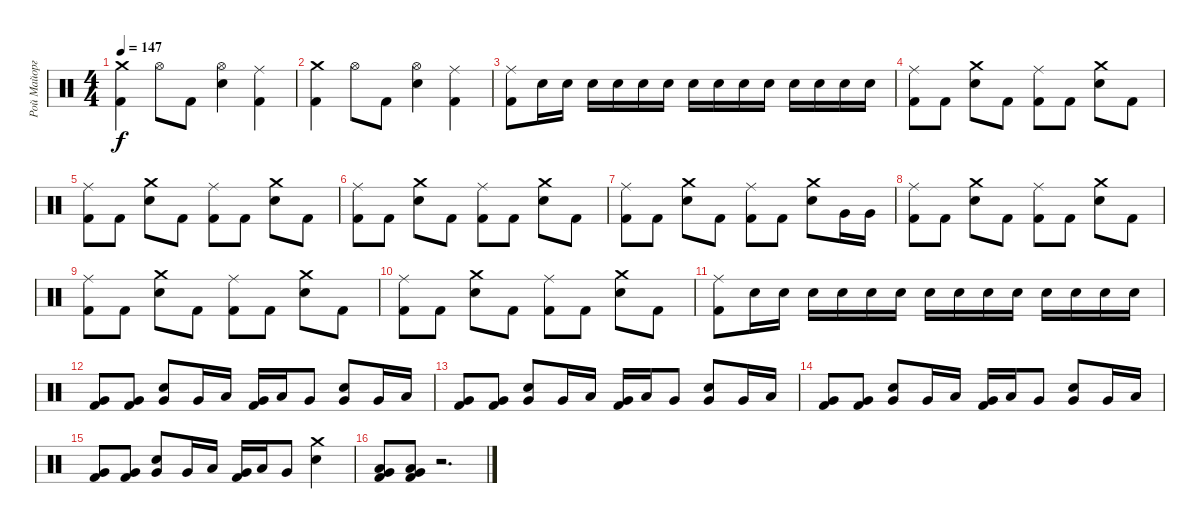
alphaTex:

\track ("Рой Майорга" "Рой Майорг") {instrument percussion}
\staff {score}
\articulation defaults
\ts (4 4)
\tempo 147
\clef neutral
\ks c
("Crash medium (hit)" "Kick (hit) 2").4{dy f} "Hi-Hat (open)".8 "Kick (hit) 2".8 ("Hi-Hat (open)" "Electric Snare (hit)").4 ("Ride (middle)" "Kick (hit) 2").4 |
("Crash medium (hit)" "Kick (hit) 2").4 "Hi-Hat (open)".8 "Kick (hit) 2".8 ("Hi-Hat (open)" "Electric Snare (hit)").4 ("Ride (middle)" "Kick (hit) 2").4 |
("Ride (middle)" "Kick (hit) 2").8 "Electric Snare (hit)".16 "Electric Snare (hit)".16 "Electric Snare (hit)".16 "Electric Snare (hit)".16 "Electric Snare (hit)".16 "Electric Snare (hit)".16 "Electric Snare (hit)".16 "Electric Snare (hit)".16 "Electric Snare (hit)".16 "Electric Snare (hit)".16 "Electric Snare (hit)".16 "Electric Snare (hit)".16 "Electric Snare (hit)".16 "Electric Snare (hit)".16 |
("Ride (middle)" "Kick (hit) 2").8 "Kick (hit) 2".8 ("Crash medium (hit)" "Electric Snare (hit)").8 "Kick (hit) 2".8 ("Ride (middle)" "Kick (hit) 2").8 "Kick (hit) 2".8 ("Crash medium (hit)" "Electric Snare (hit)").8 "Kick (hit) 2".8 |
("Ride (middle)" "Kick (hit) 2").8 "Kick (hit) 2".8 ("Crash medium (hit)" "Electric Snare (hit)").8 "Kick (hit) 2".8 ("Ride (middle)" "Kick (hit) 2").8 "Kick (hit) 2".8 ("Crash medium (hit)" "Electric Snare (hit)").8 "Kick (hit) 2".8 |
("Ride (middle)" "Kick (hit) 2").8 "Kick (hit) 2".8 ("Crash medium (hit)" "Electric Snare (hit)").8 "Kick (hit) 2".8 ("Ride (middle)" "Kick (hit) 2").8 "Kick (hit) 2".8 ("Crash medium (hit)" "Electric Snare (hit)").8 "Kick (hit) 2".8 |
("Ride (middle)" "Kick (hit) 2").8 "Kick (hit) 2".8 ("Crash medium (hit)" "Electric Snare (hit)").8 "Kick (hit) 2".8 ("Ride (middle)" "Kick (hit) 2").8 "Kick (hit) 2".8 ("Crash medium (hit)" "Electric Snare (hit)").8 "Very Low Tom (hit)".16 "Very Low Tom (hit)".16 |
("Ride (middle)" "Kick (hit) 2").8 "Kick (hit) 2".8 ("Crash medium (hit)" "Electric Snare (hit)").8 "Kick (hit) 2".8 ("Ride (middle)" "Kick (hit) 2").8 "Kick (hit) 2".8 ("Crash medium (hit)" "Electric Snare (hit)").8 "Kick (hit) 2".8 |
("Ride (middle)" "Kick (hit) 2").8 "Kick (hit) 2".8 ("Crash medium (hit)" "Electric Snare (hit)").8 "Kick (hit) 2".8 ("Ride (middle)" "Kick (hit) 2").8 "Kick (hit) 2".8 ("Crash medium (hit)" "Electric Snare (hit)").8 "Kick (hit) 2".8 |
("Ride (middle)" "Kick (hit) 2").8 "Kick (hit) 2".8 ("Crash medium (hit)" "Electric Snare (hit)").8 "Kick (hit) 2".8 ("Ride (middle)" "Kick (hit) 2").8 "Kick (hit) 2".8 ("Crash medium (hit)" "Electric Snare (hit)").8 "Kick (hit) 2".8 |
("Ride (middle)" "Kick (hit) 2").8 "Electric Snare (hit)".16 "Electric Snare (hit)".16 "Electric Snare (hit)".16 "Electric Snare (hit)".16 "Electric Snare (hit)".16 "Electric Snare (hit)".16 "Electric Snare (hit)".16 "Electric Snare (hit)".16 "Electric Snare (hit)".16 "Electric Snare (hit)".16 "Electric Snare (hit)".16 "Electric Snare (hit)".16 "Electric Snare (hit)".16 "Electric Snare (hit)".16 |
("Very Low Tom (hit)" "Kick (hit) 2").8 ("Very Low Tom (hit)" "Kick (hit) 2").8 ("Very Low Tom (hit)" "Electric Snare (hit)").8 "Very Low Tom (hit)".16 "Low Floor Tom (hit)".16 ("Very Low Tom (hit)" "Kick (hit) 2").16 "Low Floor Tom (hit)".16 "Very Low Tom (hit)".8 ("Very Low Tom (hit)" "Electric Snare (hit)").8 "Very Low Tom (hit)".16 "Low Floor Tom (hit)".16 |
("Very Low Tom (hit)" "Kick (hit) 2").8 ("Very Low Tom (hit)" "Kick (hit) 2").8 ("Very Low Tom (hit)" "Electric Snare (hit)").8 "Very Low Tom (hit)".16 "Low Floor Tom (hit)".16 ("Very Low Tom (hit)" "Kick (hit) 2").16 "Low Floor Tom (hit)".16 "Very Low Tom (hit)".8 ("Very Low Tom (hit)" "Electric Snare (hit)").8 "Very Low Tom (hit)".16 "Low Floor Tom (hit)".16 |
("Very Low Tom (hit)" "Kick (hit) 2").8 ("Very Low Tom (hit)" "Kick (hit) 2").8 ("Very Low Tom (hit)" "Electric Snare (hit)").8 "Very Low Tom (hit)".16 "Low Floor Tom (hit)".16 ("Very Low Tom (hit)" "Kick (hit) 2").16 "Low Floor Tom (hit)".16 "Very Low Tom (hit)".8 ("Very Low Tom (hit)" "Electric Snare (hit)").8 "Very Low Tom (hit)".16 "Low Floor Tom (hit)".16 |
("Very Low Tom (hit)" "Kick (hit) 2").8 ("Very Low Tom (hit)" "Kick (hit) 2").8 ("Very Low Tom (hit)" "Electric Snare (hit)").8 "Very Low Tom (hit)".16 "Low Floor Tom (hit)".16 ("Very Low Tom (hit)" "Kick (hit) 2").16 "Low Floor Tom (hit)".16 "Very Low Tom (hit)".8 ("Crash medium (hit)" "Electric Snare (hit)").4 |
("Very Low Tom (hit)" "Low Tom (hit)" "Kick (hit) 2").8 ("Very Low Tom (hit)" "Low Floor Tom (hit)" "Kick (hit) 2").8 r.2{d}
